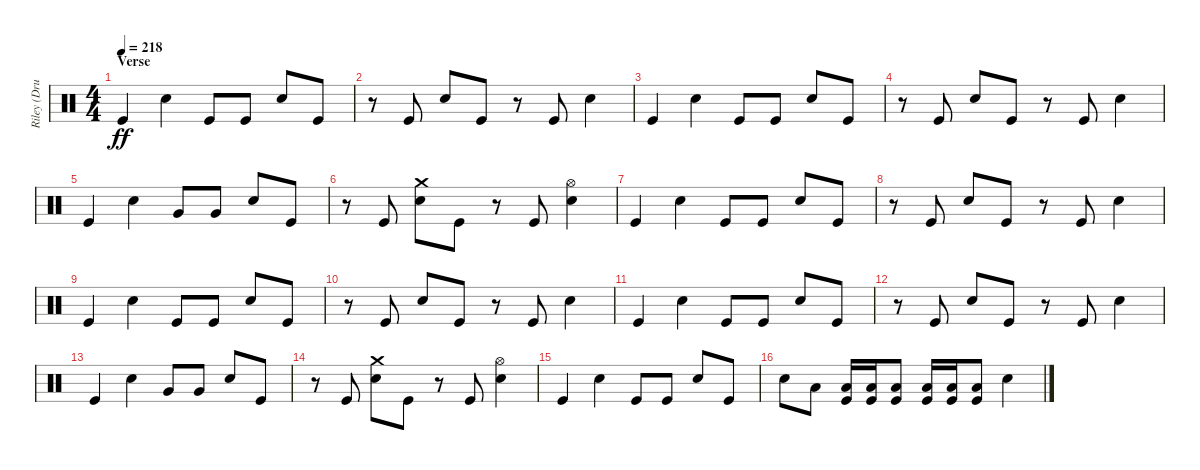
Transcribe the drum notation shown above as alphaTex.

\track ("Riley (Drums)" "Riley (Dru") {instrument percussion}
\staff {score}
\articulation defaults
\ts (4 4)
\section ("" "Verse")
\tempo 218
\clef neutral
\ks c "Kick (hit)".4{dy ff} "Electric Snare (hit)".4 "Kick (hit)".8 "Kick (hit)".8 "Electric Snare (hit)".8 "Kick (hit)".8
|
r.8 "Kick (hit)".8 "Electric Snare (hit)".8 "Kick (hit)".8 r.8 "Kick (hit)".8 "Electric Snare (hit)".4 |
"Kick (hit)".4 "Electric Snare (hit)".4 "Kick (hit)".8 "Kick (hit)".8 "Electric Snare (hit)".8 "Kick (hit)".8 |
r.8 "Kick (hit)".8 "Electric Snare (hit)".8 "Kick (hit)".8 r.8 "Kick (hit)".8 "Electric Snare (hit)".4 |
"Kick (hit)".4 "Electric Snare (hit)".4 "Very Low Tom (hit)".8 "Very Low Tom (hit)".8 "Electric Snare (hit)".8 "Kick (hit)".8 |
r.8 "Kick (hit)".8 ("Crash medium (hit)" "Electric Snare (hit)").8 "Kick (hit)".8 r.8 "Kick (hit)".8 ("Hi-Hat (open)" "Electric Snare (hit)").4 |
"Kick (hit)".4 "Electric Snare (hit)".4 "Kick (hit)".8 "Kick (hit)".8 "Electric Snare (hit)".8 "Kick (hit)".8 |
r.8 "Kick (hit)".8 "Electric Snare (hit)".8 "Kick (hit)".8 r.8 "Kick (hit)".8 "Electric Snare (hit)".4 |
"Kick (hit)".4 "Electric Snare (hit)".4 "Kick (hit)".8 "Kick (hit)".8 "Electric Snare (hit)".8 "Kick (hit)".8 |
r.8 "Kick (hit)".8 "Electric Snare (hit)".8 "Kick (hit)".8 r.8 "Kick (hit)".8 "Electric Snare (hit)".4 |
"Kick (hit)".4 "Electric Snare (hit)".4 "Kick (hit)".8 "Kick (hit)".8 "Electric Snare (hit)".8 "Kick (hit)".8 |
r.8 "Kick (hit)".8 "Electric Snare (hit)".8 "Kick (hit)".8 r.8 "Kick (hit)".8 "Electric Snare (hit)".4 |
"Kick (hit)".4 "Electric Snare (hit)".4 "Very Low Tom (hit)".8 "Very Low Tom (hit)".8 "Electric Snare (hit)".8 "Kick (hit)".8 |
r.8 "Kick (hit)".8 ("Crash medium (hit)" "Electric Snare (hit)").8 "Kick (hit)".8 r.8 "Kick (hit)".8 ("Hi-Hat (open)" "Electric Snare (hit)").4 |
"Kick (hit)".4 "Electric Snare (hit)".4 "Kick (hit)".8 "Kick (hit)".8 "Electric Snare (hit)".8 "Kick (hit)".8 |
"Electric Snare (hit)".8 "Low Floor Tom (hit)".8 ("Low Floor Tom (hit)" "Kick (hit)").16 ("Low Floor Tom (hit)" "Kick (hit)").16 ("Low Floor Tom (hit)" "Kick (hit)").8 ("Low Floor Tom (hit)" "Kick (hit)").16 ("Low Floor Tom (hit)" "Kick (hit)").16 ("Low Floor Tom (hit)" "Kick (hit)").8 "Electric Snare (hit)".4
